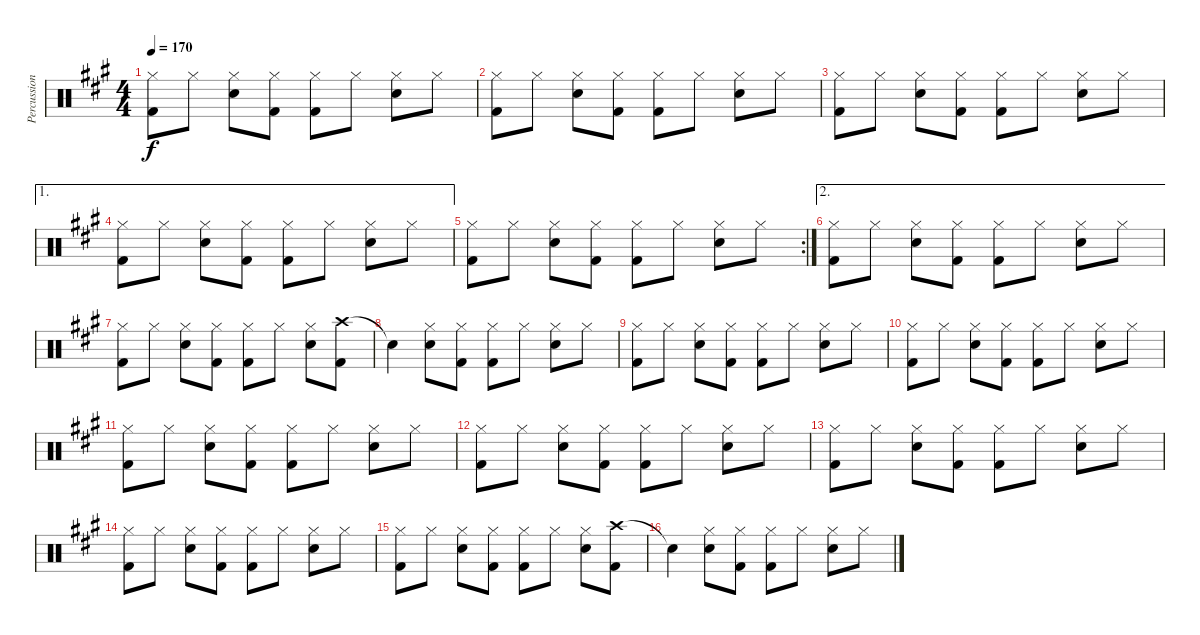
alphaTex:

\track ("Percussion" "Percussion") {instrument percussion}
\staff {score}
\articulation defaults
\ts (4 4)
\tempo 170
\clef neutral
\ks a
("Hi-Hat (closed)" "Kick (hit) 2").8{dy f} "Hi-Hat (closed)".8 ("Hi-Hat (closed)" "Snare (hit) 2").8 ("Hi-Hat (closed)" "Kick (hit) 2").8 ("Hi-Hat (closed)" "Kick (hit) 2").8 "Hi-Hat (closed)".8 ("Hi-Hat (closed)" "Snare (hit) 2").8 "Hi-Hat (closed)".8 |
("Hi-Hat (closed)" "Kick (hit) 2").8 "Hi-Hat (closed)".8 ("Hi-Hat (closed)" "Snare (hit) 2").8 ("Hi-Hat (closed)" "Kick (hit) 2").8 ("Hi-Hat (closed)" "Kick (hit) 2").8 "Hi-Hat (closed)".8 ("Hi-Hat (closed)" "Snare (hit) 2").8 "Hi-Hat (closed)".8 |
("Hi-Hat (closed)" "Kick (hit) 2").8 "Hi-Hat (closed)".8 ("Hi-Hat (closed)" "Snare (hit) 2").8 ("Hi-Hat (closed)" "Kick (hit) 2").8 ("Hi-Hat (closed)" "Kick (hit) 2").8 "Hi-Hat (closed)".8 ("Hi-Hat (closed)" "Snare (hit) 2").8 "Hi-Hat (closed)".8 |
\ae 1
("Hi-Hat (closed)" "Kick (hit) 2").8 "Hi-Hat (closed)".8 ("Hi-Hat (closed)" "Snare (hit) 2").8 ("Hi-Hat (closed)" "Kick (hit) 2").8 ("Hi-Hat (closed)" "Kick (hit) 2").8 "Hi-Hat (closed)".8 ("Hi-Hat (closed)" "Snare (hit) 2").8 "Hi-Hat (closed)".8 |
\rc 2
("Hi-Hat (closed)" "Kick (hit) 2").8 "Hi-Hat (closed)".8 ("Hi-Hat (closed)" "Snare (hit) 2").8 ("Hi-Hat (closed)" "Kick (hit) 2").8 ("Hi-Hat (closed)" "Kick (hit) 2").8 "Hi-Hat (closed)".8 ("Hi-Hat (closed)" "Snare (hit) 2").8 "Hi-Hat (closed)".8 |
\ae 2
("Hi-Hat (closed)" "Kick (hit) 2").8 "Hi-Hat (closed)".8 ("Hi-Hat (closed)" "Snare (hit) 2").8 ("Hi-Hat (closed)" "Kick (hit) 2").8 ("Hi-Hat (closed)" "Kick (hit) 2").8 "Hi-Hat (closed)".8 ("Hi-Hat (closed)" "Snare (hit) 2").8 "Hi-Hat (closed)".8 |
("Hi-Hat (closed)" "Kick (hit) 2").8 "Hi-Hat (closed)".8 ("Hi-Hat (closed)" "Snare (hit) 2").8 ("Hi-Hat (closed)" "Kick (hit) 2").8 ("Hi-Hat (closed)" "Kick (hit) 2").8 "Hi-Hat (closed)".8 ("Hi-Hat (closed)" "Snare (hit) 2").8 ("Crash high (hit)" "Kick (hit) 2").8 |
"Snare (hit)"{t}.4 ("Hi-Hat (closed)" "Snare (hit) 2").8 ("Hi-Hat (closed)" "Kick (hit) 2").8 ("Hi-Hat (closed)" "Kick (hit) 2").8 "Hi-Hat (closed)".8 ("Hi-Hat (closed)" "Snare (hit) 2").8 "Hi-Hat (closed)".8 |
("Hi-Hat (closed)" "Kick (hit) 2").8 "Hi-Hat (closed)".8 ("Hi-Hat (closed)" "Snare (hit) 2").8 ("Hi-Hat (closed)" "Kick (hit) 2").8 ("Hi-Hat (closed)" "Kick (hit) 2").8 "Hi-Hat (closed)".8 ("Hi-Hat (closed)" "Snare (hit) 2").8 "Hi-Hat (closed)".8 |
("Hi-Hat (closed)" "Kick (hit) 2").8 "Hi-Hat (closed)".8 ("Hi-Hat (closed)" "Snare (hit) 2").8 ("Hi-Hat (closed)" "Kick (hit) 2").8 ("Hi-Hat (closed)" "Kick (hit) 2").8 "Hi-Hat (closed)".8 ("Hi-Hat (closed)" "Snare (hit) 2").8 "Hi-Hat (closed)".8 |
("Hi-Hat (closed)" "Kick (hit) 2").8 "Hi-Hat (closed)".8 ("Hi-Hat (closed)" "Snare (hit) 2").8 ("Hi-Hat (closed)" "Kick (hit) 2").8 ("Hi-Hat (closed)" "Kick (hit) 2").8 "Hi-Hat (closed)".8 ("Hi-Hat (closed)" "Snare (hit) 2").8 "Hi-Hat (closed)".8 |
("Hi-Hat (closed)" "Kick (hit) 2").8 "Hi-Hat (closed)".8 ("Hi-Hat (closed)" "Snare (hit) 2").8 ("Hi-Hat (closed)" "Kick (hit) 2").8 ("Hi-Hat (closed)" "Kick (hit) 2").8 "Hi-Hat (closed)".8 ("Hi-Hat (closed)" "Snare (hit) 2").8 "Hi-Hat (closed)".8 |
("Hi-Hat (closed)" "Kick (hit) 2").8 "Hi-Hat (closed)".8 ("Hi-Hat (closed)" "Snare (hit) 2").8 ("Hi-Hat (closed)" "Kick (hit) 2").8 ("Hi-Hat (closed)" "Kick (hit) 2").8 "Hi-Hat (closed)".8 ("Hi-Hat (closed)" "Snare (hit) 2").8 "Hi-Hat (closed)".8 |
("Hi-Hat (closed)" "Kick (hit) 2").8 "Hi-Hat (closed)".8 ("Hi-Hat (closed)" "Snare (hit) 2").8 ("Hi-Hat (closed)" "Kick (hit) 2").8 ("Hi-Hat (closed)" "Kick (hit) 2").8 "Hi-Hat (closed)".8 ("Hi-Hat (closed)" "Snare (hit) 2").8 "Hi-Hat (closed)".8 |
("Hi-Hat (closed)" "Kick (hit) 2").8 "Hi-Hat (closed)".8 ("Hi-Hat (closed)" "Snare (hit) 2").8 ("Hi-Hat (closed)" "Kick (hit) 2").8 ("Hi-Hat (closed)" "Kick (hit) 2").8 "Hi-Hat (closed)".8 ("Hi-Hat (closed)" "Snare (hit) 2").8 ("Crash high (hit)" "Kick (hit) 2").8 |
"Snare (hit)"{t}.4 ("Hi-Hat (closed)" "Snare (hit) 2").8 ("Hi-Hat (closed)" "Kick (hit) 2").8 ("Hi-Hat (closed)" "Kick (hit) 2").8 "Hi-Hat (closed)".8 ("Hi-Hat (closed)" "Snare (hit) 2").8 "Hi-Hat (closed)".8
